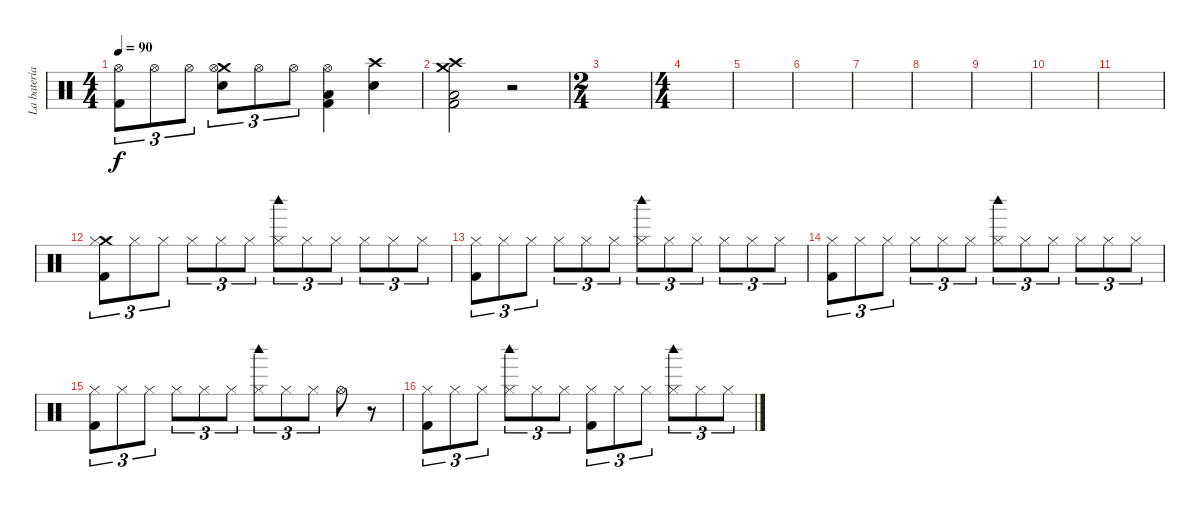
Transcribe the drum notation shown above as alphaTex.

\track ("La batería (con dos huevos xD)" "La batería") {instrument percussion}
\staff {score}
\articulation defaults
\ts (4 4)
\tempo 90
\clef neutral
\ks c
("Hi-Hat (open)" "Kick (hit) 2").8{tu (3 2) dy f} "Hi-Hat (open)".8{tu (3 2)} "Hi-Hat (open)".8{tu (3 2)} ("Crash medium (hit)" "Hi-Hat (open)" "Electric Snare (hit)").8{tu (3 2)} "Hi-Hat (open)".8{tu (3 2)} "Hi-Hat (open)".8{tu (3 2)} ("Hi-Hat (open)" "Low Floor Tom (hit)" "Kick (hit) 2").4 ("Crash high (hit)" "Electric Snare (hit)").4 |
("Crash high (hit)" "Crash medium (hit)" "Low Floor Tom (hit)" "Kick (hit) 2").2 r.2 |
\ts (2 4)
|
\ts (4 4)
|
|
|
|
|
|
|
|
("Crash medium (hit)" "Hi-Hat (closed)" "Kick (hit) 2").8{tu (3 2)} "Hi-Hat (closed)".8{tu (3 2)} "Hi-Hat (closed)".8{tu (3 2)} "Hi-Hat (closed)".8{tu (3 2)} "Hi-Hat (closed)".8{tu (3 2)} "Hi-Hat (closed)".8{tu (3 2)} ("Hi-Hat (closed)" "Woodblock high (hit)").8{tu (3 2)} "Hi-Hat (closed)".8{tu (3 2)} "Hi-Hat (closed)".8{tu (3 2)} "Hi-Hat (closed)".8{tu (3 2)} "Hi-Hat (closed)".8{tu (3 2)} "Hi-Hat (closed)".8{tu (3 2)} |
("Hi-Hat (closed)" "Kick (hit) 2").8{tu (3 2)} "Hi-Hat (closed)".8{tu (3 2)} "Hi-Hat (closed)".8{tu (3 2)} "Hi-Hat (closed)".8{tu (3 2)} "Hi-Hat (closed)".8{tu (3 2)} "Hi-Hat (closed)".8{tu (3 2)} ("Hi-Hat (closed)" "Woodblock high (hit)").8{tu (3 2)} "Hi-Hat (closed)".8{tu (3 2)} "Hi-Hat (closed)".8{tu (3 2)} "Hi-Hat (closed)".8{tu (3 2)} "Hi-Hat (closed)".8{tu (3 2)} "Hi-Hat (closed)".8{tu (3 2)} |
("Hi-Hat (closed)" "Kick (hit) 2").8{tu (3 2)} "Hi-Hat (closed)".8{tu (3 2)} "Hi-Hat (closed)".8{tu (3 2)} "Hi-Hat (closed)".8{tu (3 2)} "Hi-Hat (closed)".8{tu (3 2)} "Hi-Hat (closed)".8{tu (3 2)} ("Hi-Hat (closed)" "Woodblock high (hit)").8{tu (3 2)} "Hi-Hat (closed)".8{tu (3 2)} "Hi-Hat (closed)".8{tu (3 2)} "Hi-Hat (closed)".8{tu (3 2)} "Hi-Hat (closed)".8{tu (3 2)} "Hi-Hat (closed)".8{tu (3 2)} |
("Hi-Hat (closed)" "Kick (hit) 2").8{tu (3 2)} "Hi-Hat (closed)".8{tu (3 2)} "Hi-Hat (closed)".8{tu (3 2)} "Hi-Hat (closed)".8{tu (3 2)} "Hi-Hat (closed)".8{tu (3 2)} "Hi-Hat (closed)".8{tu (3 2)} ("Hi-Hat (closed)" "Woodblock high (hit)").8{tu (3 2)} "Hi-Hat (closed)".8{tu (3 2)} "Hi-Hat (closed)".8{tu (3 2)} "Hi-Hat (open)".8 r.8 |
("Hi-Hat (closed)" "Kick (hit) 2").8{tu (3 2)} "Hi-Hat (closed)".8{tu (3 2)} "Hi-Hat (closed)".8{tu (3 2)} ("Hi-Hat (closed)" "Woodblock high (hit)").8{tu (3 2)} "Hi-Hat (closed)".8{tu (3 2)} "Hi-Hat (closed)".8{tu (3 2)} ("Hi-Hat (closed)" "Kick (hit) 2").8{tu (3 2)} "Hi-Hat (closed)".8{tu (3 2)} "Hi-Hat (closed)".8{tu (3 2)} ("Hi-Hat (closed)" "Woodblock high (hit)").8{tu (3 2)} "Hi-Hat (closed)".8{tu (3 2)} "Hi-Hat (closed)".8{tu (3 2)}
